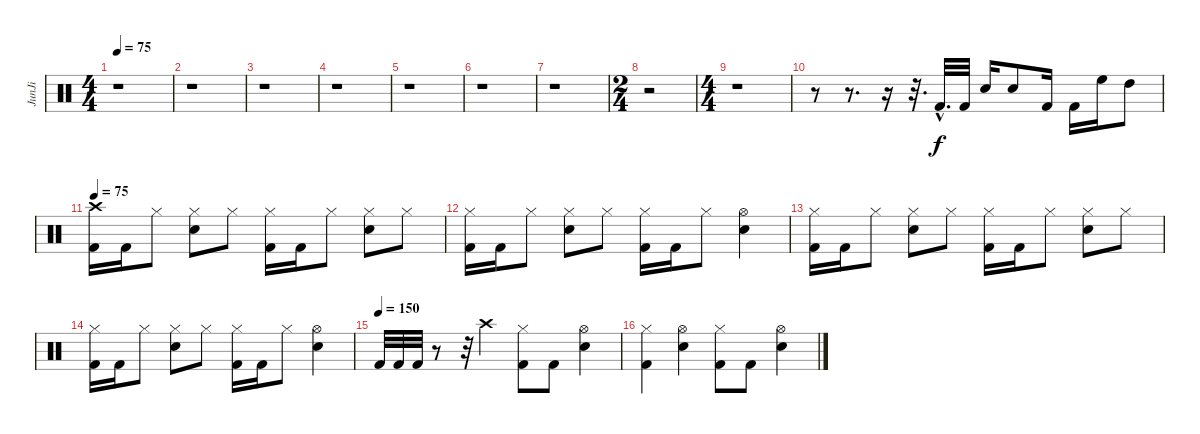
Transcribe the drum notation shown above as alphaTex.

\track ("JunJi" "JunJi") {instrument percussion}
\staff {score}
\articulation defaults
\ts (4 4)
\tempo 75
\clef neutral
\ks c
r.1{dy f} |
r.1 |
r.1 |
r.1 |
r.1 |
r.1 |
r.1 |
\ts (2 4)
r.2 |
\ts (4 4)
r.1 |
r.8 r.8{d} r.16 r.32{d} "Kick (hit) 2"{hac}.32{d} "Kick (hit) 2".32 "Electric Snare (hit)".16 "Electric Snare (hit)".8 "Kick (hit) 2".16 "Kick (hit) 2".16 "High Floor Tom (hit)".16 "High Tom (hit)".8 |
\tempo 75
("Crash high (hit)" "Kick (hit) 2").16 "Kick (hit) 2".16 "Hi-Hat (closed)".8 ("Hi-Hat (closed)" "Electric Snare (hit)").8 "Hi-Hat (closed)".8 ("Hi-Hat (closed)" "Kick (hit) 2").16 "Kick (hit) 2".16 "Hi-Hat (closed)".8 ("Hi-Hat (closed)" "Electric Snare (hit)").8 "Hi-Hat (closed)".8 |
("Hi-Hat (closed)" "Kick (hit) 2").16 "Kick (hit) 2".16 "Hi-Hat (closed)".8 ("Hi-Hat (closed)" "Electric Snare (hit)").8 "Hi-Hat (closed)".8 ("Hi-Hat (closed)" "Kick (hit) 2").16 "Kick (hit) 2".16 "Hi-Hat (closed)".8 ("Hi-Hat (open)" "Electric Snare (hit)").4 |
("Hi-Hat (closed)" "Kick (hit) 2").16 "Kick (hit) 2".16 "Hi-Hat (closed)".8 ("Hi-Hat (closed)" "Electric Snare (hit)").8 "Hi-Hat (closed)".8 ("Hi-Hat (closed)" "Kick (hit) 2").16 "Kick (hit) 2".16 "Hi-Hat (closed)".8 ("Hi-Hat (closed)" "Electric Snare (hit)").8 "Hi-Hat (closed)".8 |
("Hi-Hat (closed)" "Kick (hit) 2").16 "Kick (hit) 2".16 "Hi-Hat (closed)".8 ("Hi-Hat (closed)" "Electric Snare (hit)").8 "Hi-Hat (closed)".8 ("Hi-Hat (closed)" "Kick (hit) 2").16 "Kick (hit) 2".16 "Hi-Hat (closed)".8 ("Hi-Hat (open)" "Electric Snare (hit)").4 |
\tempo (150)
"Kick (hit) 2".32 "Kick (hit) 2".32 "Kick (hit) 2".32 r.8 r.32 "Crash high (hit)".4 ("Hi-Hat (closed)" "Kick (hit) 2").8 "Kick (hit) 2".8 ("Electric Snare (hit)" "Hi-Hat (open)").4 |
("Hi-Hat (closed)" "Kick (hit) 2").4 ("Electric Snare (hit)" "Hi-Hat (open)").4 ("Hi-Hat (closed)" "Kick (hit) 2").8 "Kick (hit) 2".8 ("Electric Snare (hit)" "Hi-Hat (open)").4
